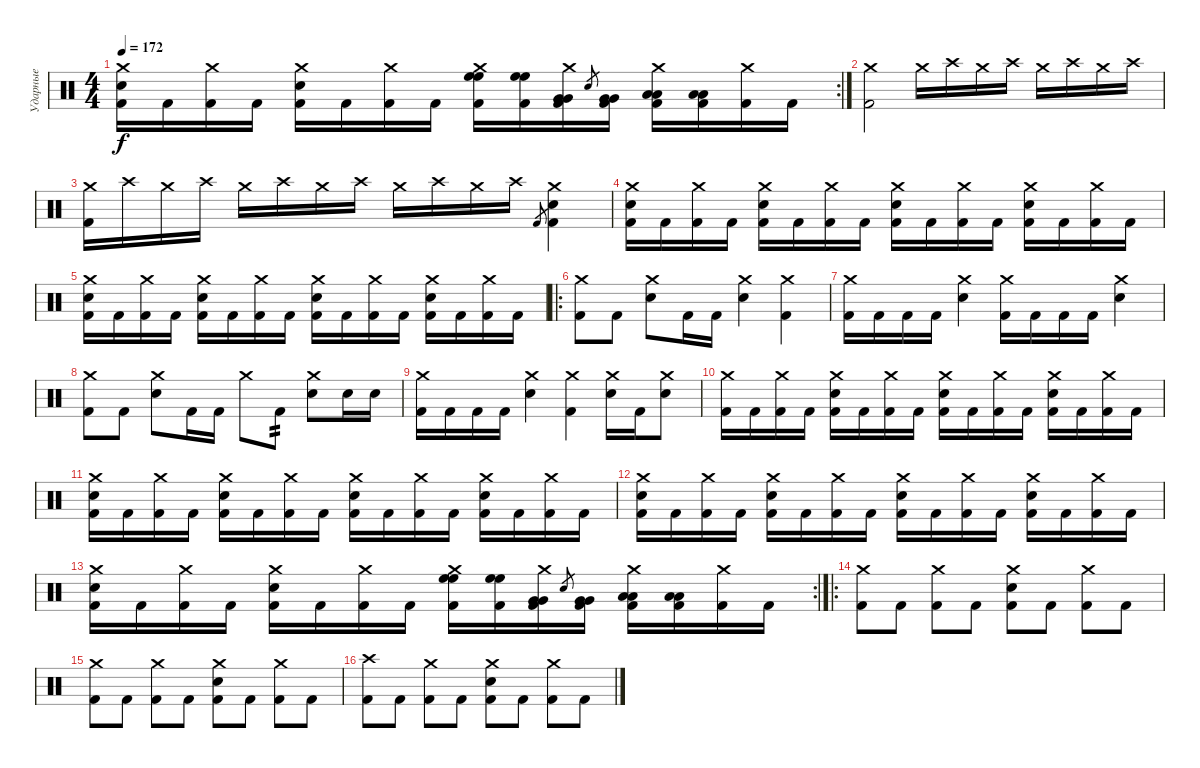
\track ("Ударные" "Ударные") {instrument percussion}
\staff {score}
\articulation defaults
\rc 2
\ts (4 4)
\tempo 172
\clef neutral
\ks c
("Crash medium (hit)" "Electric Snare (hit)" "Kick (hit) 2").16{dy f} "Kick (hit) 2".16 ("Crash medium (hit)" "Kick (hit) 2").16 "Kick (hit) 2".16 ("Crash medium (hit)" "Electric Snare (hit)" "Kick (hit) 2").16 "Kick (hit) 2".16 ("Crash medium (hit)" "Kick (hit) 2").16 "Kick (hit) 2".16 ("Crash medium (hit)" "High Floor Tom (hit)" "High Floor Tom (hit)" "Kick (hit) 2").16 ("High Floor Tom (hit)" "High Floor Tom (hit)" "Kick (hit) 2").16 ("Crash medium (hit)" "Very Low Tom (hit)" "Very Low Tom (hit)" "Kick (hit) 2").16 "Electric Snare (hit)".8{gr} ("Very Low Tom (hit)" "Very Low Tom (hit)" "Kick (hit) 2").16 ("Crash medium (hit)" "Low Tom (hit)" "Low Tom (hit)" "Kick (hit) 2").16 ("Low Floor Tom (hit)" "Low Floor Tom (hit)" "Kick (hit) 2").16 ("Crash medium (hit)" "Kick (hit) 2").16 "Kick (hit) 2".16 |
("Crash medium (hit)" "Kick (hit) 2").2 "Crash medium (hit)".16{volume 8} "Crash high (hit)".16 "Crash medium (hit)".16 "Crash high (hit)".16 "Crash medium (hit)".16 "Crash high (hit)".16 "Crash medium (hit)".16 "Crash high (hit)".16 |
("Crash medium (hit)" "Kick (hit) 2").16 "Crash high (hit)".16 "Crash medium (hit)".16 "Crash high (hit)".16 "Crash medium (hit)".16 "Crash high (hit)".16 "Crash medium (hit)".16 "Crash high (hit)".16 "Crash medium (hit)".16 "Crash high (hit)".16 "Crash medium (hit)".16 "Crash high (hit)".16 "Kick (hit) 2".8{gr} ("Crash medium (hit)" "Electric Snare (hit)" "Kick (hit) 2").4{volume 16} |
("Crash medium (hit)" "Electric Snare (hit)" "Kick (hit) 2").16 "Kick (hit) 2".16 ("Crash medium (hit)" "Kick (hit) 2").16 "Kick (hit) 2".16 ("Crash medium (hit)" "Electric Snare (hit)" "Kick (hit) 2").16 "Kick (hit) 2".16 ("Crash medium (hit)" "Kick (hit) 2").16 "Kick (hit) 2".16 ("Crash medium (hit)" "Electric Snare (hit)" "Kick (hit) 2").16 "Kick (hit) 2".16 ("Crash medium (hit)" "Kick (hit) 2").16 "Kick (hit) 2".16 ("Crash medium (hit)" "Electric Snare (hit)" "Kick (hit) 2").16 "Kick (hit) 2".16 ("Crash medium (hit)" "Kick (hit) 2").16 "Kick (hit) 2".16 |
("Crash medium (hit)" "Electric Snare (hit)" "Kick (hit) 2").16 "Kick (hit) 2".16 ("Crash medium (hit)" "Kick (hit) 2").16 "Kick (hit) 2".16 ("Crash medium (hit)" "Electric Snare (hit)" "Kick (hit) 2").16 "Kick (hit) 2".16 ("Crash medium (hit)" "Kick (hit) 2").16 "Kick (hit) 2".16 ("Crash medium (hit)" "Electric Snare (hit)" "Kick (hit) 2").16 "Kick (hit) 2".16 ("Crash medium (hit)" "Kick (hit) 2").16 "Kick (hit) 2".16 ("Crash medium (hit)" "Electric Snare (hit)" "Kick (hit) 2").16 "Kick (hit) 2".16 ("Crash medium (hit)" "Kick (hit) 2").16 "Kick (hit) 2".16 |
\ro
("Crash medium (hit)" "Kick (hit) 2").8 "Kick (hit) 2".8 ("Crash medium (hit)" "Electric Snare (hit)").8 "Kick (hit) 2".16 "Kick (hit) 2".16 ("Crash medium (hit)" "Electric Snare (hit)").4 ("Crash medium (hit)" "Kick (hit) 2").4 |
("Crash medium (hit)" "Kick (hit) 2").16 "Kick (hit) 2".16 "Kick (hit) 2".16 "Kick (hit) 2".16 ("Crash medium (hit)" "Electric Snare (hit)").4 ("Crash medium (hit)" "Kick (hit) 2").16 "Kick (hit) 2".16 "Kick (hit) 2".16 "Kick (hit) 2".16 ("Crash medium (hit)" "Electric Snare (hit)").4 |
("Crash medium (hit)" "Kick (hit) 2").8 "Kick (hit) 2".8 ("Crash medium (hit)" "Electric Snare (hit)").8 "Kick (hit) 2".16 "Kick (hit) 2".16 "Crash medium (hit)".8 "Kick (hit) 2".8{tp 2} ("Crash medium (hit)" "Electric Snare (hit)").8 "Electric Snare (hit)".16 "Electric Snare (hit)".16 |
("Crash medium (hit)" "Kick (hit) 2").16 "Kick (hit) 2".16 "Kick (hit) 2".16 "Kick (hit) 2".16 ("Crash medium (hit)" "Electric Snare (hit)").4 ("Crash medium (hit)" "Kick (hit) 2").4 ("Crash medium (hit)" "Electric Snare (hit)").16 "Kick (hit) 2".16 ("Crash medium (hit)" "Electric Snare (hit)").8 |
("Crash medium (hit)" "Kick (hit) 2").16 "Kick (hit) 2".16 ("Crash medium (hit)" "Kick (hit) 2").16 "Kick (hit) 2".16 ("Crash medium (hit)" "Electric Snare (hit)" "Kick (hit) 2").16 "Kick (hit) 2".16 ("Crash medium (hit)" "Kick (hit) 2").16 "Kick (hit) 2".16 ("Crash medium (hit)" "Electric Snare (hit)" "Kick (hit) 2").16 "Kick (hit) 2".16 ("Crash medium (hit)" "Kick (hit) 2").16 "Kick (hit) 2".16 ("Crash medium (hit)" "Electric Snare (hit)" "Kick (hit) 2").16 "Kick (hit) 2".16 ("Crash medium (hit)" "Kick (hit) 2").16 "Kick (hit) 2".16 |
("Crash medium (hit)" "Electric Snare (hit)" "Kick (hit) 2").16 "Kick (hit) 2".16 ("Crash medium (hit)" "Kick (hit) 2").16 "Kick (hit) 2".16 ("Crash medium (hit)" "Electric Snare (hit)" "Kick (hit) 2").16 "Kick (hit) 2".16 ("Crash medium (hit)" "Kick (hit) 2").16 "Kick (hit) 2".16 ("Crash medium (hit)" "Electric Snare (hit)" "Kick (hit) 2").16 "Kick (hit) 2".16 ("Crash medium (hit)" "Kick (hit) 2").16 "Kick (hit) 2".16 ("Crash medium (hit)" "Electric Snare (hit)" "Kick (hit) 2").16 "Kick (hit) 2".16 ("Crash medium (hit)" "Kick (hit) 2").16 "Kick (hit) 2".16 |
("Crash medium (hit)" "Electric Snare (hit)" "Kick (hit) 2").16 "Kick (hit) 2".16 ("Crash medium (hit)" "Kick (hit) 2").16 "Kick (hit) 2".16 ("Crash medium (hit)" "Electric Snare (hit)" "Kick (hit) 2").16 "Kick (hit) 2".16 ("Crash medium (hit)" "Kick (hit) 2").16 "Kick (hit) 2".16 ("Crash medium (hit)" "Electric Snare (hit)" "Kick (hit) 2").16 "Kick (hit) 2".16 ("Crash medium (hit)" "Kick (hit) 2").16 "Kick (hit) 2".16 ("Crash medium (hit)" "Electric Snare (hit)" "Kick (hit) 2").16 "Kick (hit) 2".16 ("Crash medium (hit)" "Kick (hit) 2").16 "Kick (hit) 2".16 |
\rc 2
("Crash medium (hit)" "Electric Snare (hit)" "Kick (hit) 2").16 "Kick (hit) 2".16 ("Crash medium (hit)" "Kick (hit) 2").16 "Kick (hit) 2".16 ("Crash medium (hit)" "Electric Snare (hit)" "Kick (hit) 2").16 "Kick (hit) 2".16 ("Crash medium (hit)" "Kick (hit) 2").16 "Kick (hit) 2".16 ("Crash medium (hit)" "High Floor Tom (hit)" "High Floor Tom (hit)" "Kick (hit) 2").16 ("High Floor Tom (hit)" "High Floor Tom (hit)" "Kick (hit) 2").16 ("Crash medium (hit)" "Very Low Tom (hit)" "Very Low Tom (hit)" "Kick (hit) 2").16 "Electric Snare (hit)".8{gr} ("Very Low Tom (hit)" "Very Low Tom (hit)" "Kick (hit) 2").16 ("Crash medium (hit)" "Low Tom (hit)" "Low Tom (hit)" "Kick (hit) 2").16 ("Low Floor Tom (hit)" "Low Floor Tom (hit)" "Kick (hit) 2").16 ("Crash medium (hit)" "Kick (hit) 2").16 "Kick (hit) 2".16 |
\ro
("Crash medium (hit)" "Kick (hit) 2").8 "Kick (hit) 2".8 ("Crash medium (hit)" "Kick (hit) 2").8 "Kick (hit) 2".8 ("Crash medium (hit)" "Electric Snare (hit)" "Kick (hit) 2").8 "Kick (hit) 2".8 ("Crash medium (hit)" "Kick (hit) 2").8 "Kick (hit) 2".8 |
("Crash medium (hit)" "Kick (hit) 2").8 "Kick (hit) 2".8 ("Crash medium (hit)" "Kick (hit) 2").8 "Kick (hit) 2".8 ("Crash medium (hit)" "Electric Snare (hit)" "Kick (hit) 2").8 "Kick (hit) 2".8 ("Crash medium (hit)" "Kick (hit) 2").8 "Kick (hit) 2".8 |
("Crash high (hit)" "Kick (hit) 2").8 "Kick (hit) 2".8 ("Crash medium (hit)" "Kick (hit) 2").8 "Kick (hit) 2".8 ("Crash medium (hit)" "Electric Snare (hit)" "Kick (hit) 2").8 "Kick (hit) 2".8 ("Crash medium (hit)" "Kick (hit) 2").8 "Kick (hit) 2".8
